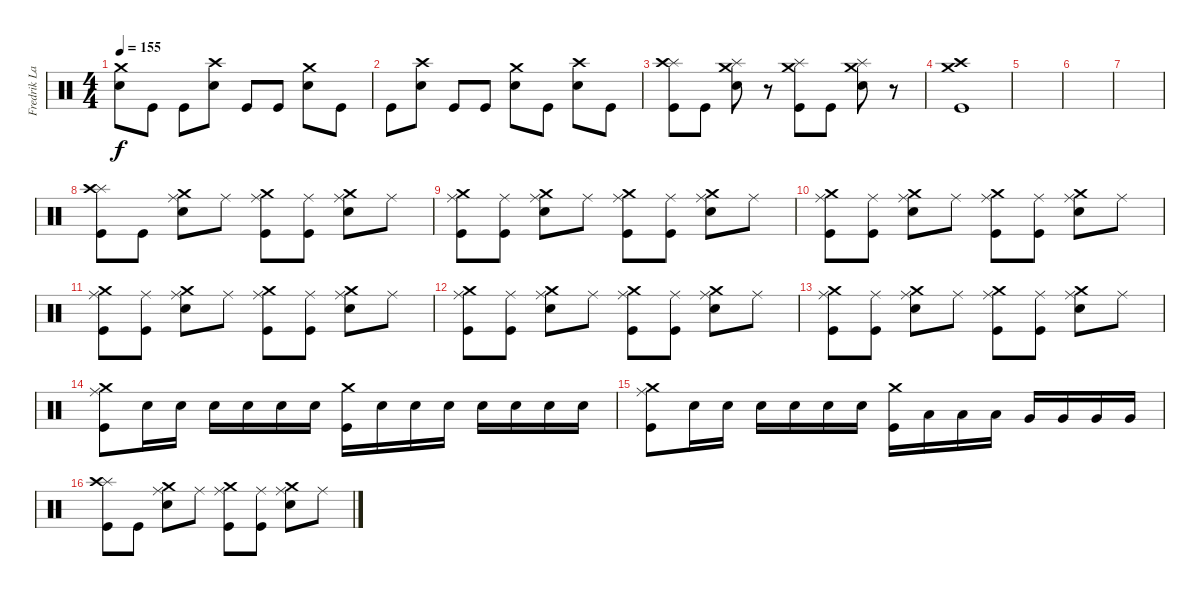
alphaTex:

\track ("Fredrik Larzon Drums" "Fredrik La") {instrument percussion}
\staff {score}
\articulation defaults
\ts (4 4)
\tempo 155
\clef neutral
\ks c
("Crash medium (hit)" "Electric Snare (hit)").8{dy f} "Kick (hit)".8 "Kick (hit)".8 ("Crash high (hit)" "Electric Snare (hit)").8 "Kick (hit)".8 "Kick (hit)".8 ("Crash medium (hit)" "Electric Snare (hit)").8 "Kick (hit)".8 |
"Kick (hit)".8 ("Crash high (hit)" "Electric Snare (hit)").8 "Kick (hit)".8 "Kick (hit)".8 ("Crash medium (hit)" "Electric Snare (hit)").8 "Kick (hit)".8 ("Crash high (hit)" "Electric Snare (hit)").8 "Kick (hit)".8 |
("Splash (hit)" "Crash high (hit)" "Kick (hit)").8 "Kick (hit)".8 ("Splash (hit)" "Crash medium (hit)" "Electric Snare (hit)").8 r.8 ("Splash (hit)" "Crash medium (hit)" "Kick (hit)").8 "Kick (hit)".8 ("Splash (hit)" "Crash medium (hit)" "Electric Snare (hit)").8 r.8 |
("Crash high (hit)" "Crash medium (hit)" "Kick (hit)").1 |
|
|
|
("Splash (hit)" "Crash high (hit)" "Kick (hit)").8 "Kick (hit)".8 ("Ride (middle)" "Crash medium (hit)" "Electric Snare (hit)").8 "Ride (middle)".8 ("Ride (middle)" "Crash medium (hit)" "Kick (hit)").8 ("Ride (middle)" "Kick (hit)").8 ("Ride (middle)" "Crash medium (hit)" "Electric Snare (hit)").8 "Ride (middle)".8 |
("Ride (middle)" "Crash medium (hit)" "Kick (hit)").8 ("Ride (middle)" "Kick (hit)").8 ("Ride (middle)" "Crash medium (hit)" "Electric Snare (hit)").8 "Ride (middle)".8 ("Ride (middle)" "Crash medium (hit)" "Kick (hit)").8 ("Ride (middle)" "Kick (hit)").8 ("Ride (middle)" "Crash medium (hit)" "Electric Snare (hit)").8 "Ride (middle)".8 |
("Ride (middle)" "Crash medium (hit)" "Kick (hit)").8 ("Ride (middle)" "Kick (hit)").8 ("Ride (middle)" "Crash medium (hit)" "Electric Snare (hit)").8 "Ride (middle)".8 ("Ride (middle)" "Crash medium (hit)" "Kick (hit)").8 ("Ride (middle)" "Kick (hit)").8 ("Ride (middle)" "Crash medium (hit)" "Electric Snare (hit)").8 "Ride (middle)".8 |
("Ride (middle)" "Crash medium (hit)" "Kick (hit)").8 ("Ride (middle)" "Kick (hit)").8 ("Ride (middle)" "Crash medium (hit)" "Electric Snare (hit)").8 "Ride (middle)".8 ("Ride (middle)" "Crash medium (hit)" "Kick (hit)").8 ("Ride (middle)" "Kick (hit)").8 ("Ride (middle)" "Crash medium (hit)" "Electric Snare (hit)").8 "Ride (middle)".8 |
("Ride (middle)" "Crash medium (hit)" "Kick (hit)").8 ("Ride (middle)" "Kick (hit)").8 ("Ride (middle)" "Crash medium (hit)" "Electric Snare (hit)").8 "Ride (middle)".8 ("Ride (middle)" "Crash medium (hit)" "Kick (hit)").8 ("Ride (middle)" "Kick (hit)").8 ("Ride (middle)" "Crash medium (hit)" "Electric Snare (hit)").8 "Ride (middle)".8 |
("Ride (middle)" "Crash medium (hit)" "Kick (hit)").8 ("Ride (middle)" "Kick (hit)").8 ("Ride (middle)" "Crash medium (hit)" "Electric Snare (hit)").8 "Ride (middle)".8 ("Ride (middle)" "Crash medium (hit)" "Kick (hit)").8 ("Ride (middle)" "Kick (hit)").8 ("Ride (middle)" "Crash medium (hit)" "Electric Snare (hit)").8 "Ride (middle)".8 |
("Ride (middle)" "Crash medium (hit)" "Kick (hit)").8 "Electric Snare (hit)".16 "Electric Snare (hit)".16 "Electric Snare (hit)".16 "Electric Snare (hit)".16 "Electric Snare (hit)".16 "Electric Snare (hit)".16 ("Crash medium (hit)" "Kick (hit)").16 "Electric Snare (hit)".16 "Electric Snare (hit)".16 "Electric Snare (hit)".16 "Electric Snare (hit)".16 "Electric Snare (hit)".16 "Electric Snare (hit)".16 "Electric Snare (hit)".16 |
("Ride (middle)" "Crash medium (hit)" "Kick (hit)").8 "Electric Snare (hit)".16 "Electric Snare (hit)".16 "Electric Snare (hit)".16 "Electric Snare (hit)".16 "Electric Snare (hit)".16 "Electric Snare (hit)".16 ("Crash medium (hit)" "Kick (hit)").16 "Low Tom (hit)".16 "Low Tom (hit)".16 "Low Tom (hit)".16 "Very Low Tom (hit)".16 "Very Low Tom (hit)".16 "Very Low Tom (hit)".16 "Very Low Tom (hit)".16 |
("Splash (hit)" "Crash high (hit)" "Kick (hit)").8 "Kick (hit)".8 ("Ride (middle)" "Crash medium (hit)" "Electric Snare (hit)").8 "Ride (middle)".8 ("Ride (middle)" "Crash medium (hit)" "Kick (hit)").8 ("Ride (middle)" "Kick (hit)").8 ("Ride (middle)" "Crash medium (hit)" "Electric Snare (hit)").8 "Ride (middle)".8
